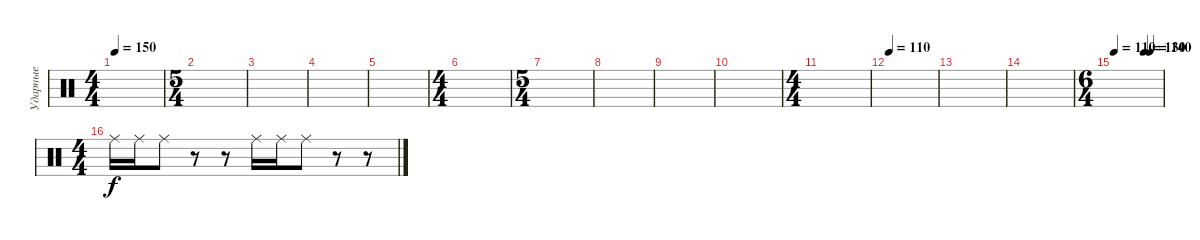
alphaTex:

\track ("Ударные" "Ударные") {instrument percussion}
\staff {score}
\articulation defaults
\ts (4 4)
\tempo 150
\clef neutral
\ks c
|
\ts (5 4)
|
|
|
|
\ts (4 4)
|
\ts (5 4)
|
|
|
|
\ts (4 4)
|
\tempo 110
|
|
|
\ts (6 4)
\tempo 110
\tempo (130 0.625)
\tempo (140 0.75)
|
\ts (4 4)
"Ride (middle)".16 "Ride (middle)".16 "Ride (middle)".8 r.8 r.8 "Ride (middle)".16 "Ride (middle)".16 "Ride (middle)".8 r.8 r.8
